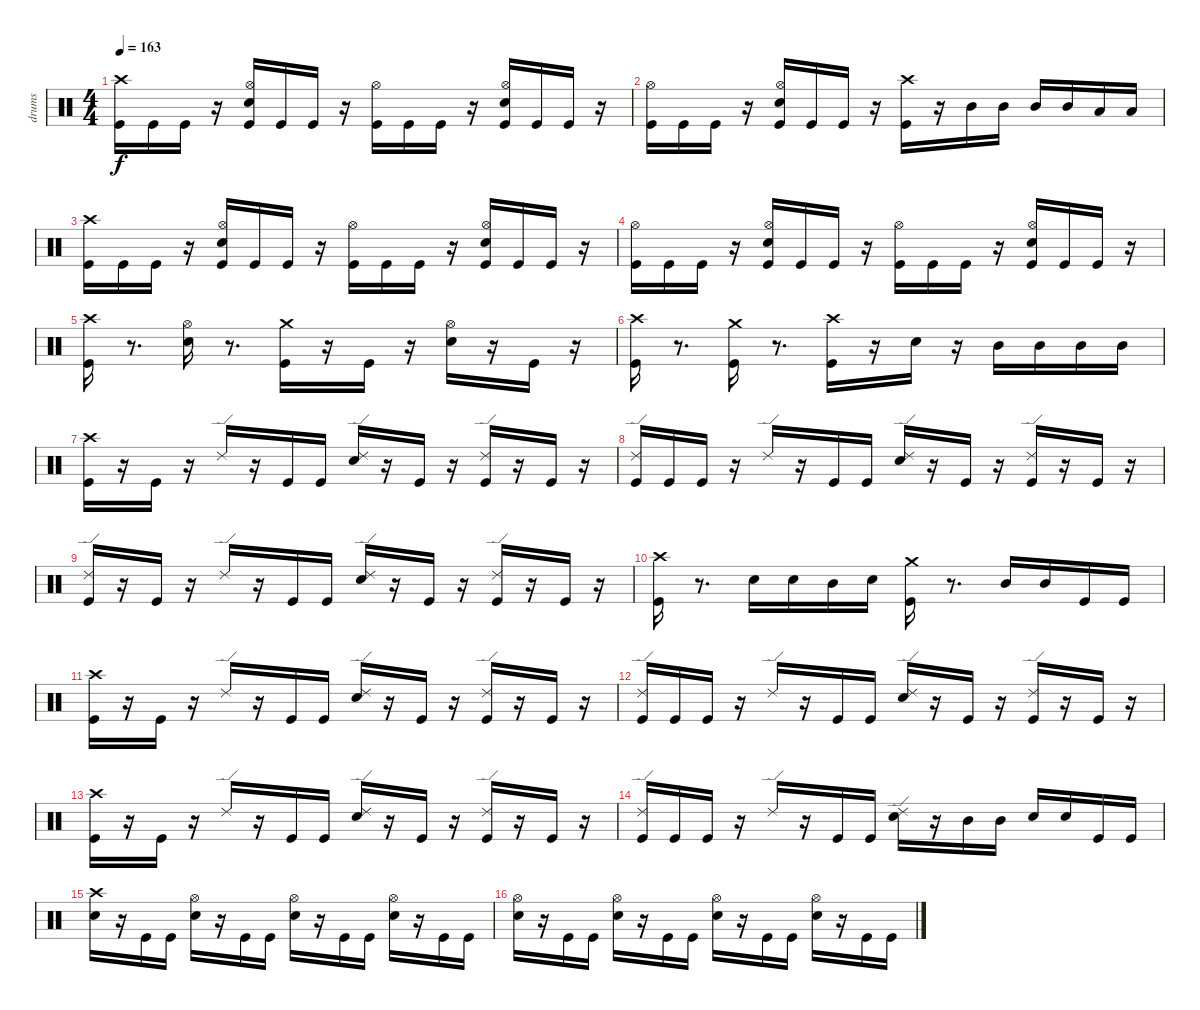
\track ("drums" "drums") {instrument percussion}
\staff {score}
\articulation defaults
\ts (4 4)
\tempo 163
\clef neutral
\ks c
("Crash high (hit)" "Kick (hit)").16{dy f} "Kick (hit)".16 "Kick (hit)".16 r.16 ("Hi-Hat (open)" "Snare (hit) 2" "Kick (hit)").16 "Kick (hit)".16 "Kick (hit)".16 r.16 ("Hi-Hat (open)" "Kick (hit)").16 "Kick (hit)".16 "Kick (hit)".16 r.16 ("Hi-Hat (open)" "Snare (hit) 2" "Kick (hit)").16 "Kick (hit)".16 "Kick (hit)".16 r.16 |
("Hi-Hat (open)" "Kick (hit)").16 "Kick (hit)".16 "Kick (hit)".16 r.16 ("Hi-Hat (open)" "Snare (hit) 2" "Kick (hit)").16 "Kick (hit)".16 "Kick (hit)".16 r.16 ("Crash high (hit)" "Kick (hit)").16 r.16 "Mid Tom (hit)".16 "Mid Tom (hit)".16 "Mid Tom (hit)".16 "Mid Tom (hit)".16 "Low Tom (hit)".16 "Low Tom (hit)".16 |
("Crash high (hit)" "Kick (hit)").16 "Kick (hit)".16 "Kick (hit)".16 r.16 ("Kick (hit)" "Hi-Hat (open)" "Snare (hit) 2").16 "Kick (hit)".16 "Kick (hit)".16 r.16 ("Hi-Hat (open)" "Kick (hit)").16 "Kick (hit)".16 "Kick (hit)".16 r.16 ("Kick (hit)" "Hi-Hat (open)" "Snare (hit) 2").16 "Kick (hit)".16 "Kick (hit)".16 r.16 |
("Hi-Hat (open)" "Kick (hit)").16 "Kick (hit)".16 "Kick (hit)".16 r.16 ("Kick (hit)" "Hi-Hat (open)" "Snare (hit) 2").16 "Kick (hit)".16 "Kick (hit)".16 r.16 ("Hi-Hat (open)" "Kick (hit)").16 "Kick (hit)".16 "Kick (hit)".16 r.16 ("Kick (hit)" "Hi-Hat (open)" "Snare (hit) 2").16 "Kick (hit)".16 "Kick (hit)".16 r.16 |
("Crash high (hit)" "Kick (hit)").16 r.8{d} ("Hi-Hat (open)" "Snare (hit) 2").16 r.8{d} ("Crash medium (hit)" "Kick (hit)").16 r.16 "Kick (hit)".16 r.16 ("Hi-Hat (open)" "Snare (hit) 2").16 r.16 "Kick (hit)".16 r.16 |
("Kick (hit)" "Crash high (hit)").16 r.8{d} ("Kick (hit)" "Crash medium (hit)").16 r.8{d} ("Kick (hit)" "Crash high (hit)").16 r.16 "Snare (hit) 2".16 r.16 "Mid Tom (hit)".16 "Mid Tom (hit)".16 "Mid Tom (hit)".16 "Mid Tom (hit)".16 |
("Crash high (hit)" "Kick (hit)").16 r.16 "Kick (hit)".16 r.16 "Ride (edge) 2".16 r.16 "Kick (hit)".16 "Kick (hit)".16 ("Ride (edge) 2" "Snare (hit) 2").16 r.16 "Kick (hit)".16 r.16 ("Kick (hit)" "Ride (edge) 2").16 r.16 "Kick (hit)".16 r.16 |
("Ride (edge) 2" "Kick (hit)").16 "Kick (hit)".16 "Kick (hit)".16 r.16 "Ride (edge) 2".16 r.16 "Kick (hit)".16 "Kick (hit)".16 ("Ride (edge) 2" "Snare (hit) 2").16 r.16 "Kick (hit)".16 r.16 ("Kick (hit)" "Ride (edge) 2").16 r.16 "Kick (hit)".16 r.16 |
("Ride (edge) 2" "Kick (hit)").16 r.16 "Kick (hit)".16 r.16 "Ride (edge) 2".16 r.16 "Kick (hit)".16 "Kick (hit)".16 ("Ride (edge) 2" "Snare (hit) 2").16 r.16 "Kick (hit)".16 r.16 ("Ride (edge) 2" "Kick (hit)").16 r.16 "Kick (hit)".16 r.16 |
("Kick (hit)" "Crash high (hit)").16 r.8{d} "Snare (hit) 2".16 "Snare (hit) 2".16 "Mid Tom (hit)".16 "Snare (hit) 2".16 ("Crash medium (hit)" "Kick (hit)").16 r.8{d} "Mid Tom (hit)".16 "Mid Tom (hit)".16 "Kick (hit)".16 "Kick (hit)".16 |
("Crash high (hit)" "Kick (hit)").16 r.16 "Kick (hit)".16 r.16 "Ride (edge) 2".16 r.16 "Kick (hit)".16 "Kick (hit)".16 ("Ride (edge) 2" "Snare (hit) 2").16 r.16 "Kick (hit)".16 r.16 ("Kick (hit)" "Ride (edge) 2").16 r.16 "Kick (hit)".16 r.16 |
("Ride (edge) 2" "Kick (hit)").16 "Kick (hit)".16 "Kick (hit)".16 r.16 "Ride (edge) 2".16 r.16 "Kick (hit)".16 "Kick (hit)".16 ("Ride (edge) 2" "Snare (hit) 2").16 r.16 "Kick (hit)".16 r.16 ("Kick (hit)" "Ride (edge) 2").16 r.16 "Kick (hit)".16 r.16 |
("Crash high (hit)" "Kick (hit)").16 r.16 "Kick (hit)".16 r.16 "Ride (edge) 2".16 r.16 "Kick (hit)".16 "Kick (hit)".16 ("Ride (edge) 2" "Snare (hit) 2").16 r.16 "Kick (hit)".16 r.16 ("Kick (hit)" "Ride (edge) 2").16 r.16 "Kick (hit)".16 r.16 |
("Ride (edge) 2" "Kick (hit)").16 "Kick (hit)".16 "Kick (hit)".16 r.16 "Ride (edge) 2".16 r.16 "Kick (hit)".16 "Kick (hit)".16 ("Ride (edge) 2" "Snare (hit) 2").16 r.16 "Mid Tom (hit)".16 "Mid Tom (hit)".16 "Snare (hit) 2".16 "Snare (hit) 2".16 "Kick (hit)".16 "Kick (hit)".16 |
("Crash high (hit)" "Snare (hit) 2").16 r.16 "Kick (hit)".16 "Kick (hit)".16 ("Hi-Hat (open)" "Snare (hit) 2").16 r.16 "Kick (hit)".16 "Kick (hit)".16 ("Hi-Hat (open)" "Snare (hit) 2").16 r.16 "Kick (hit)".16 "Kick (hit)".16 ("Hi-Hat (open)" "Snare (hit) 2").16 r.16 "Kick (hit)".16 "Kick (hit)".16 |
("Hi-Hat (open)" "Snare (hit) 2").16 r.16 "Kick (hit)".16 "Kick (hit)".16 ("Hi-Hat (open)" "Snare (hit) 2").16 r.16 "Kick (hit)".16 "Kick (hit)".16 ("Hi-Hat (open)" "Snare (hit) 2").16 r.16 "Kick (hit)".16 "Kick (hit)".16 ("Hi-Hat (open)" "Snare (hit) 2").16 r.16 "Kick (hit)".16 "Kick (hit)".16
